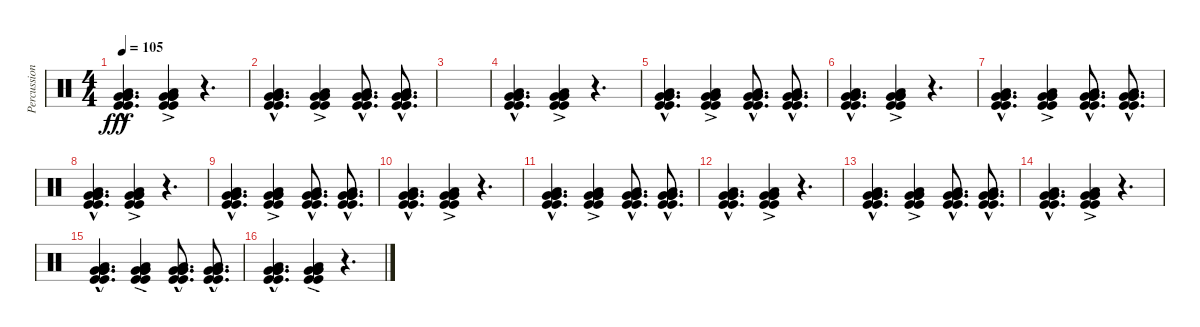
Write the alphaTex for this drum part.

\track ("Percussions" "Percussion") {instrument percussion}
\staff {score}
\articulation defaults
\ts (4 4)
\tempo 105
\clef neutral
\ks c
("Very Low Tom (hit)"{hac} "Very Low Tom (hit)"{hac} "Very Low Tom (hit)"{hac} "Kick (hit)"{hac} "Low Floor Tom (hit)"{hac} "Kick (hit)"{hac}).4{d dy fff volume 16} ("Very Low Tom (hit)"{ac} "Very Low Tom (hit)"{ac} "Very Low Tom (hit)"{ac} "Kick (hit)"{ac} "Low Floor Tom (hit)"{ac} "Kick (hit)"{ac}).4{volume 16} r.4{d} |
("Very Low Tom (hit)"{hac} "Very Low Tom (hit)"{hac} "Very Low Tom (hit)"{hac} "Kick (hit)"{hac} "Low Floor Tom (hit)"{hac} "Kick (hit)"{hac}).4{d volume 16} ("Very Low Tom (hit)"{ac} "Very Low Tom (hit)"{ac} "Very Low Tom (hit)"{ac} "Kick (hit)"{ac} "Low Floor Tom (hit)"{ac} "Kick (hit)"{ac}).4{volume 16} ("Very Low Tom (hit)"{hac} "Very Low Tom (hit)"{hac} "Very Low Tom (hit)"{hac} "Kick (hit)"{hac} "Low Floor Tom (hit)"{hac} "Kick (hit)"{hac}).8{d volume 16} ("Very Low Tom (hit)"{hac} "Very Low Tom (hit)"{hac} "Very Low Tom (hit)"{hac} "Kick (hit)"{hac} "Low Floor Tom (hit)"{hac} "Kick (hit)"{hac}).8{d volume 16} |
|
("Very Low Tom (hit)"{hac} "Very Low Tom (hit)"{hac} "Very Low Tom (hit)"{hac} "Kick (hit)"{hac} "Low Floor Tom (hit)"{hac} "Kick (hit)"{hac}).4{d volume 16} ("Very Low Tom (hit)"{ac} "Very Low Tom (hit)"{ac} "Very Low Tom (hit)"{ac} "Kick (hit)"{ac} "Low Floor Tom (hit)"{ac} "Kick (hit)"{ac}).4{volume 16} r.4{d} |
("Very Low Tom (hit)"{hac} "Very Low Tom (hit)"{hac} "Very Low Tom (hit)"{hac} "Kick (hit)"{hac} "Low Floor Tom (hit)"{hac} "Kick (hit)"{hac}).4{d volume 16} ("Very Low Tom (hit)"{ac} "Very Low Tom (hit)"{ac} "Very Low Tom (hit)"{ac} "Kick (hit)"{ac} "Low Floor Tom (hit)"{ac} "Kick (hit)"{ac}).4{volume 16} ("Very Low Tom (hit)"{hac} "Very Low Tom (hit)"{hac} "Very Low Tom (hit)"{hac} "Kick (hit)"{hac} "Low Floor Tom (hit)"{hac} "Kick (hit)"{hac}).8{d volume 16} ("Very Low Tom (hit)"{hac} "Very Low Tom (hit)"{hac} "Very Low Tom (hit)"{hac} "Kick (hit)"{hac} "Low Floor Tom (hit)"{hac} "Kick (hit)"{hac}).8{d volume 16} |
("Very Low Tom (hit)"{hac} "Very Low Tom (hit)"{hac} "Very Low Tom (hit)"{hac} "Kick (hit)"{hac} "Low Floor Tom (hit)"{hac} "Kick (hit)"{hac}).4{d volume 16} ("Very Low Tom (hit)"{ac} "Very Low Tom (hit)"{ac} "Very Low Tom (hit)"{ac} "Kick (hit)"{ac} "Low Floor Tom (hit)"{ac} "Kick (hit)"{ac}).4{volume 16} r.4{d} |
("Very Low Tom (hit)"{hac} "Very Low Tom (hit)"{hac} "Very Low Tom (hit)"{hac} "Kick (hit)"{hac} "Low Floor Tom (hit)"{hac} "Kick (hit)"{hac}).4{d volume 16} ("Very Low Tom (hit)"{ac} "Very Low Tom (hit)"{ac} "Very Low Tom (hit)"{ac} "Kick (hit)"{ac} "Low Floor Tom (hit)"{ac} "Kick (hit)"{ac}).4{volume 16} ("Very Low Tom (hit)"{hac} "Very Low Tom (hit)"{hac} "Very Low Tom (hit)"{hac} "Kick (hit)"{hac} "Low Floor Tom (hit)"{hac} "Kick (hit)"{hac}).8{d volume 16} ("Very Low Tom (hit)"{hac} "Very Low Tom (hit)"{hac} "Very Low Tom (hit)"{hac} "Kick (hit)"{hac} "Low Floor Tom (hit)"{hac} "Kick (hit)"{hac}).8{d volume 16} |
("Very Low Tom (hit)"{hac} "Very Low Tom (hit)"{hac} "Very Low Tom (hit)"{hac} "Kick (hit)"{hac} "Low Floor Tom (hit)"{hac} "Kick (hit)"{hac}).4{d volume 16} ("Very Low Tom (hit)"{ac} "Very Low Tom (hit)"{ac} "Very Low Tom (hit)"{ac} "Kick (hit)"{ac} "Low Floor Tom (hit)"{ac} "Kick (hit)"{ac}).4{volume 16} r.4{d} |
("Very Low Tom (hit)"{hac} "Very Low Tom (hit)"{hac} "Very Low Tom (hit)"{hac} "Kick (hit)"{hac} "Low Floor Tom (hit)"{hac} "Kick (hit)"{hac}).4{d volume 16} ("Very Low Tom (hit)"{ac} "Very Low Tom (hit)"{ac} "Very Low Tom (hit)"{ac} "Kick (hit)"{ac} "Low Floor Tom (hit)"{ac} "Kick (hit)"{ac}).4{volume 16} ("Very Low Tom (hit)"{hac} "Very Low Tom (hit)"{hac} "Very Low Tom (hit)"{hac} "Kick (hit)"{hac} "Low Floor Tom (hit)"{hac} "Kick (hit)"{hac}).8{d volume 16} ("Very Low Tom (hit)"{hac} "Very Low Tom (hit)"{hac} "Very Low Tom (hit)"{hac} "Kick (hit)"{hac} "Low Floor Tom (hit)"{hac} "Kick (hit)"{hac}).8{d volume 16} |
("Very Low Tom (hit)"{hac} "Very Low Tom (hit)"{hac} "Very Low Tom (hit)"{hac} "Kick (hit)"{hac} "Low Floor Tom (hit)"{hac} "Kick (hit)"{hac}).4{d volume 16} ("Very Low Tom (hit)"{ac} "Very Low Tom (hit)"{ac} "Very Low Tom (hit)"{ac} "Kick (hit)"{ac} "Low Floor Tom (hit)"{ac} "Kick (hit)"{ac}).4{volume 16} r.4{d} |
("Very Low Tom (hit)"{hac} "Very Low Tom (hit)"{hac} "Very Low Tom (hit)"{hac} "Kick (hit)"{hac} "Low Floor Tom (hit)"{hac} "Kick (hit)"{hac}).4{d volume 16} ("Very Low Tom (hit)"{ac} "Very Low Tom (hit)"{ac} "Very Low Tom (hit)"{ac} "Kick (hit)"{ac} "Low Floor Tom (hit)"{ac} "Kick (hit)"{ac}).4{volume 16} ("Very Low Tom (hit)"{hac} "Very Low Tom (hit)"{hac} "Very Low Tom (hit)"{hac} "Kick (hit)"{hac} "Low Floor Tom (hit)"{hac} "Kick (hit)"{hac}).8{d volume 16} ("Very Low Tom (hit)"{hac} "Very Low Tom (hit)"{hac} "Very Low Tom (hit)"{hac} "Kick (hit)"{hac} "Low Floor Tom (hit)"{hac} "Kick (hit)"{hac}).8{d volume 16} |
("Very Low Tom (hit)"{hac} "Very Low Tom (hit)"{hac} "Very Low Tom (hit)"{hac} "Kick (hit)"{hac} "Low Floor Tom (hit)"{hac} "Kick (hit)"{hac}).4{d volume 16} ("Very Low Tom (hit)"{ac} "Very Low Tom (hit)"{ac} "Very Low Tom (hit)"{ac} "Kick (hit)"{ac} "Low Floor Tom (hit)"{ac} "Kick (hit)"{ac}).4{volume 16} r.4{d} |
("Very Low Tom (hit)"{hac} "Very Low Tom (hit)"{hac} "Very Low Tom (hit)"{hac} "Kick (hit)"{hac} "Low Floor Tom (hit)"{hac} "Kick (hit)"{hac}).4{d volume 16} ("Very Low Tom (hit)"{ac} "Very Low Tom (hit)"{ac} "Very Low Tom (hit)"{ac} "Kick (hit)"{ac} "Low Floor Tom (hit)"{ac} "Kick (hit)"{ac}).4{volume 16} ("Very Low Tom (hit)"{hac} "Very Low Tom (hit)"{hac} "Very Low Tom (hit)"{hac} "Kick (hit)"{hac} "Low Floor Tom (hit)"{hac} "Kick (hit)"{hac}).8{d volume 16} ("Very Low Tom (hit)"{hac} "Very Low Tom (hit)"{hac} "Very Low Tom (hit)"{hac} "Kick (hit)"{hac} "Low Floor Tom (hit)"{hac} "Kick (hit)"{hac}).8{d volume 16} |
("Very Low Tom (hit)"{hac} "Very Low Tom (hit)"{hac} "Very Low Tom (hit)"{hac} "Kick (hit)"{hac} "Low Floor Tom (hit)"{hac} "Kick (hit)"{hac}).4{d volume 16} ("Very Low Tom (hit)"{ac} "Very Low Tom (hit)"{ac} "Very Low Tom (hit)"{ac} "Kick (hit)"{ac} "Low Floor Tom (hit)"{ac} "Kick (hit)"{ac}).4{volume 16} r.4{d} |
("Very Low Tom (hit)"{hac} "Very Low Tom (hit)"{hac} "Very Low Tom (hit)"{hac} "Kick (hit)"{hac} "Low Floor Tom (hit)"{hac} "Kick (hit)"{hac}).4{d volume 16} ("Very Low Tom (hit)"{ac} "Very Low Tom (hit)"{ac} "Very Low Tom (hit)"{ac} "Kick (hit)"{ac} "Low Floor Tom (hit)"{ac} "Kick (hit)"{ac}).4{volume 16} ("Very Low Tom (hit)"{hac} "Very Low Tom (hit)"{hac} "Very Low Tom (hit)"{hac} "Kick (hit)"{hac} "Low Floor Tom (hit)"{hac} "Kick (hit)"{hac}).8{d volume 16} ("Very Low Tom (hit)"{hac} "Very Low Tom (hit)"{hac} "Very Low Tom (hit)"{hac} "Kick (hit)"{hac} "Low Floor Tom (hit)"{hac} "Kick (hit)"{hac}).8{d volume 16} |
("Very Low Tom (hit)"{hac} "Very Low Tom (hit)"{hac} "Very Low Tom (hit)"{hac} "Kick (hit)"{hac} "Low Floor Tom (hit)"{hac} "Kick (hit)"{hac}).4{d volume 16} ("Very Low Tom (hit)"{ac} "Very Low Tom (hit)"{ac} "Very Low Tom (hit)"{ac} "Kick (hit)"{ac} "Low Floor Tom (hit)"{ac} "Kick (hit)"{ac}).4{volume 16} r.4{d}
